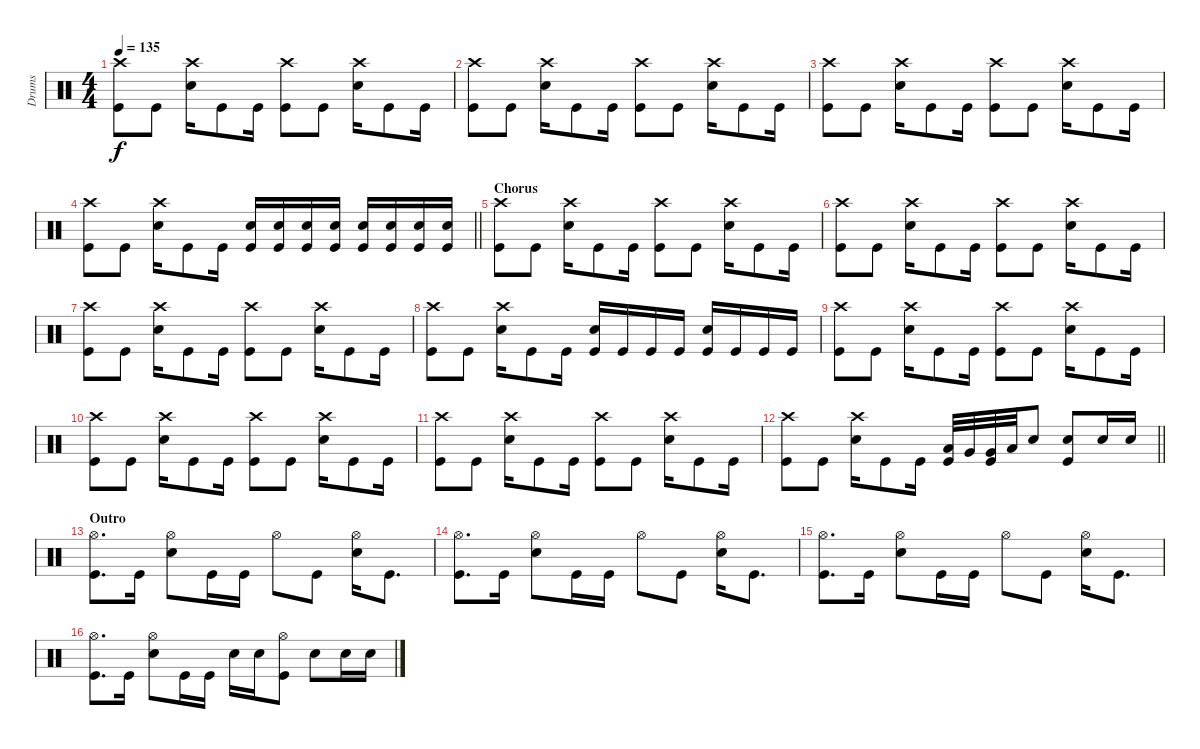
\track ("Drums" "Drums") {instrument percussion}
\staff {score}
\articulation defaults
\ts (4 4)
\tempo 135
\clef neutral
\ks c
("Kick (hit)" "Crash high (hit)").8{dy f} "Kick (hit)".8 ("Snare (hit) 2" "Crash high (hit)").16 "Kick (hit)".8 "Kick (hit)".16 ("Kick (hit)" "Crash high (hit)").8 "Kick (hit)".8 ("Snare (hit) 2" "Crash high (hit)").16 "Kick (hit)".8 "Kick (hit)".16 |
("Kick (hit)" "Crash high (hit)").8 "Kick (hit)".8 ("Snare (hit) 2" "Crash high (hit)").16 "Kick (hit)".8 "Kick (hit)".16 ("Kick (hit)" "Crash high (hit)").8 "Kick (hit)".8 ("Snare (hit) 2" "Crash high (hit)").16 "Kick (hit)".8 "Kick (hit)".16 |
("Kick (hit)" "Crash high (hit)").8 "Kick (hit)".8 ("Snare (hit) 2" "Crash high (hit)").16 "Kick (hit)".8 "Kick (hit)".16 ("Kick (hit)" "Crash high (hit)").8 "Kick (hit)".8 ("Snare (hit) 2" "Crash high (hit)").16 "Kick (hit)".8 "Kick (hit)".16 |
\barLineRight lightlight
("Kick (hit)" "Crash high (hit)").8 "Kick (hit)".8 ("Snare (hit) 2" "Crash high (hit)").16 "Kick (hit)".8 "Kick (hit)".16 ("Kick (hit)" "Snare (hit) 2").16 ("Kick (hit)" "Snare (hit) 2").16 ("Kick (hit)" "Snare (hit) 2").16 ("Kick (hit)" "Snare (hit) 2").16 ("Kick (hit)" "Snare (hit) 2").16 ("Kick (hit)" "Snare (hit) 2").16 ("Kick (hit)" "Snare (hit) 2").16 ("Kick (hit)" "Snare (hit) 2").16 |
\section ("" "Chorus")
("Kick (hit)" "Crash high (hit)").8 "Kick (hit)".8 ("Snare (hit) 2" "Crash high (hit)").16 "Kick (hit)".8 "Kick (hit)".16 ("Kick (hit)" "Crash high (hit)").8 "Kick (hit)".8 ("Snare (hit) 2" "Crash high (hit)").16 "Kick (hit)".8 "Kick (hit)".16 |
("Kick (hit)" "Crash high (hit)").8 "Kick (hit)".8 ("Snare (hit) 2" "Crash high (hit)").16 "Kick (hit)".8 "Kick (hit)".16 ("Kick (hit)" "Crash high (hit)").8 "Kick (hit)".8 ("Snare (hit) 2" "Crash high (hit)").16 "Kick (hit)".8 "Kick (hit)".16 |
("Kick (hit)" "Crash high (hit)").8 "Kick (hit)".8 ("Snare (hit) 2" "Crash high (hit)").16 "Kick (hit)".8 "Kick (hit)".16 ("Kick (hit)" "Crash high (hit)").8 "Kick (hit)".8 ("Snare (hit) 2" "Crash high (hit)").16 "Kick (hit)".8 "Kick (hit)".16 |
("Kick (hit)" "Crash high (hit)").8 "Kick (hit)".8 ("Snare (hit) 2" "Crash high (hit)").16 "Kick (hit)".8 "Kick (hit)".16 ("Kick (hit)" "Snare (hit) 2").16 "Kick (hit)".16 "Kick (hit)".16 "Kick (hit)".16 ("Kick (hit)" "Snare (hit) 2").16 "Kick (hit)".16 "Kick (hit)".16 "Kick (hit)".16 |
("Kick (hit)" "Crash high (hit)").8 "Kick (hit)".8 ("Snare (hit) 2" "Crash high (hit)").16 "Kick (hit)".8 "Kick (hit)".16 ("Kick (hit)" "Crash high (hit)").8 "Kick (hit)".8 ("Snare (hit) 2" "Crash high (hit)").16 "Kick (hit)".8 "Kick (hit)".16 |
("Kick (hit)" "Crash high (hit)").8 "Kick (hit)".8 ("Snare (hit) 2" "Crash high (hit)").16 "Kick (hit)".8 "Kick (hit)".16 ("Kick (hit)" "Crash high (hit)").8 "Kick (hit)".8 ("Snare (hit) 2" "Crash high (hit)").16 "Kick (hit)".8 "Kick (hit)".16 |
("Kick (hit)" "Crash high (hit)").8 "Kick (hit)".8 ("Snare (hit) 2" "Crash high (hit)").16 "Kick (hit)".8 "Kick (hit)".16 ("Kick (hit)" "Crash high (hit)").8 "Kick (hit)".8 ("Snare (hit) 2" "Crash high (hit)").16 "Kick (hit)".8 "Kick (hit)".16 |
\barLineRight lightlight
("Kick (hit)" "Crash high (hit)").8 "Kick (hit)".8 ("Snare (hit) 2" "Crash high (hit)").16 "Kick (hit)".8 "Kick (hit)".16 ("Low Tom (hit)" "Kick (hit)").32 "Very Low Tom (hit)".32 ("Very Low Tom (hit)" "Kick (hit)").32 "Low Floor Tom (hit)".32 "Snare (hit) 2".8 ("Kick (hit)" "Snare (hit) 2").8 "Snare (hit) 2".16 "Snare (hit) 2".16 |
\section ("" "Outro")
("Kick (hit)" "Hi-Hat (open)").8{d} "Kick (hit)".16 ("Snare (hit) 2" "Hi-Hat (open)").8 "Kick (hit)".16 "Kick (hit)".16 "Hi-Hat (open)".8 "Kick (hit)".8 ("Snare (hit) 2" "Hi-Hat (open)").16 "Kick (hit)".8{d} |
("Kick (hit)" "Hi-Hat (open)").8{d} "Kick (hit)".16 ("Snare (hit) 2" "Hi-Hat (open)").8 "Kick (hit)".16 "Kick (hit)".16 "Hi-Hat (open)".8 "Kick (hit)".8 ("Snare (hit) 2" "Hi-Hat (open)").16 "Kick (hit)".8{d} |
("Kick (hit)" "Hi-Hat (open)").8{d} "Kick (hit)".16 ("Snare (hit) 2" "Hi-Hat (open)").8 "Kick (hit)".16 "Kick (hit)".16 "Hi-Hat (open)".8 "Kick (hit)".8 ("Snare (hit) 2" "Hi-Hat (open)").16 "Kick (hit)".8{d} |
("Kick (hit)" "Hi-Hat (open)").8{d} "Kick (hit)".16 ("Snare (hit) 2" "Hi-Hat (open)").8 "Kick (hit)".16 "Kick (hit)".16 "Snare (hit) 2".16 "Snare (hit) 2".16 ("Kick (hit)" "Hi-Hat (open)").8 "Snare (hit) 2".8 "Snare (hit) 2".16 "Snare (hit) 2".16
